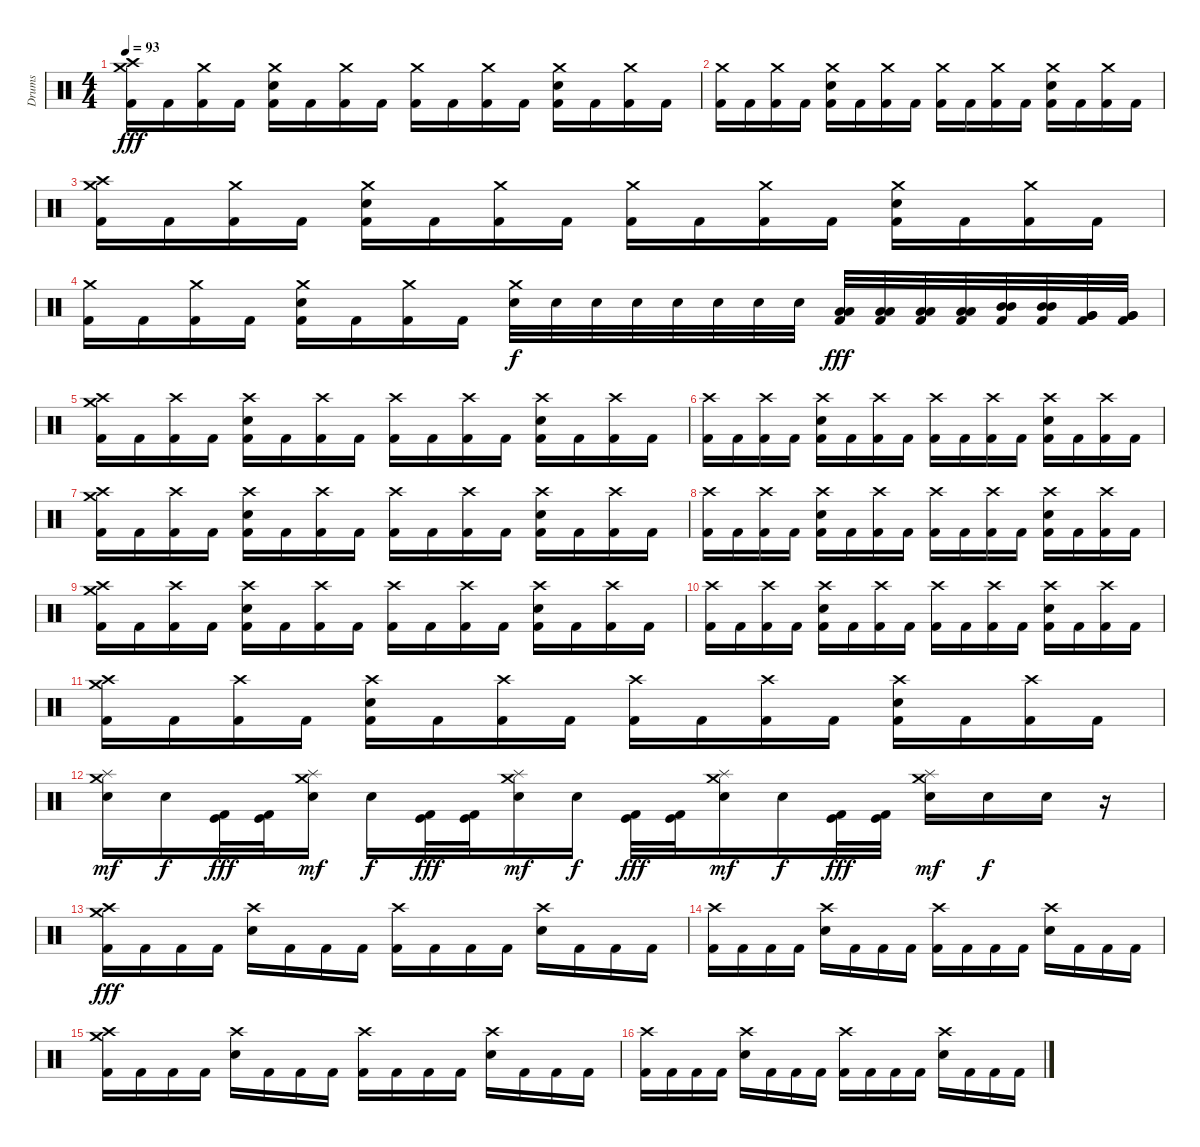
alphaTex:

\track ("Drums" "Drums") {instrument percussion}
\staff {score}
\articulation defaults
\ts (4 4)
\tempo 93
\clef neutral
\ks c
("Crash medium (hit)" "Crash high (hit)" "Kick (hit) 2").16{dy fff} "Kick (hit) 2".16 ("Crash medium (hit)" "Kick (hit) 2").16 "Kick (hit) 2".16 ("Crash medium (hit)" "Electric Snare (hit)" "Kick (hit) 2").16 "Kick (hit) 2".16 ("Crash medium (hit)" "Kick (hit) 2").16 "Kick (hit) 2".16 ("Crash medium (hit)" "Kick (hit) 2").16 "Kick (hit) 2".16 ("Crash medium (hit)" "Kick (hit) 2").16 "Kick (hit) 2".16 ("Crash medium (hit)" "Electric Snare (hit)" "Kick (hit) 2").16 "Kick (hit) 2".16 ("Crash medium (hit)" "Kick (hit) 2").16 "Kick (hit) 2".16 |
("Crash medium (hit)" "Kick (hit) 2").16 "Kick (hit) 2".16 ("Crash medium (hit)" "Kick (hit) 2").16 "Kick (hit) 2".16 ("Crash medium (hit)" "Electric Snare (hit)" "Kick (hit) 2").16 "Kick (hit) 2".16 ("Crash medium (hit)" "Kick (hit) 2").16 "Kick (hit) 2".16 ("Crash medium (hit)" "Kick (hit) 2").16 "Kick (hit) 2".16 ("Crash medium (hit)" "Kick (hit) 2").16 "Kick (hit) 2".16 ("Crash medium (hit)" "Electric Snare (hit)" "Kick (hit) 2").16 "Kick (hit) 2".16 ("Crash medium (hit)" "Kick (hit) 2").16 "Kick (hit) 2".16 |
("Crash medium (hit)" "Crash high (hit)" "Kick (hit) 2").16 "Kick (hit) 2".16 ("Crash medium (hit)" "Kick (hit) 2").16 "Kick (hit) 2".16 ("Crash medium (hit)" "Electric Snare (hit)" "Kick (hit) 2").16 "Kick (hit) 2".16 ("Crash medium (hit)" "Kick (hit) 2").16 "Kick (hit) 2".16 ("Crash medium (hit)" "Kick (hit) 2").16 "Kick (hit) 2".16 ("Crash medium (hit)" "Kick (hit) 2").16 "Kick (hit) 2".16 ("Crash medium (hit)" "Electric Snare (hit)" "Kick (hit) 2").16 "Kick (hit) 2".16 ("Crash medium (hit)" "Kick (hit) 2").16 "Kick (hit) 2".16 |
("Crash medium (hit)" "Kick (hit) 2").16 "Kick (hit) 2".16 ("Crash medium (hit)" "Kick (hit) 2").16 "Kick (hit) 2".16 ("Crash medium (hit)" "Electric Snare (hit)" "Kick (hit) 2").16 "Kick (hit) 2".16 ("Crash medium (hit)" "Kick (hit) 2").16 "Kick (hit) 2".16 ("Crash medium (hit)" "Electric Snare (hit)").32{dy f} "Electric Snare (hit)".32 "Electric Snare (hit)".32 "Electric Snare (hit)".32 "Electric Snare (hit)".32 "Electric Snare (hit)".32 "Electric Snare (hit)".32 "Electric Snare (hit)".32 ("Low Tom (hit)" "Low Tom (hit)" "Kick (hit) 2").32{dy fff} ("Low Tom (hit)" "Low Tom (hit)" "Kick (hit) 2").32 ("Low Tom (hit)" "Low Tom (hit)" "Kick (hit) 2").32 ("Low Tom (hit)" "Low Tom (hit)" "Kick (hit) 2").32 ("Mid Tom (hit)" "Mid Tom (hit)" "Kick (hit) 2").32 ("Mid Tom (hit)" "Mid Tom (hit)" "Kick (hit) 2").32 ("Very Low Tom (hit)" "Very Low Tom (hit)" "Kick (hit) 2").32 ("Very Low Tom (hit)" "Very Low Tom (hit)" "Kick (hit) 2").32 |
("Crash medium (hit)" "Crash high (hit)" "Kick (hit) 2").16 "Kick (hit) 2".16 ("Crash high (hit)" "Kick (hit) 2").16 "Kick (hit) 2".16 ("Crash high (hit)" "Electric Snare (hit)" "Kick (hit) 2").16 "Kick (hit) 2".16 ("Crash high (hit)" "Kick (hit) 2").16 "Kick (hit) 2".16 ("Crash high (hit)" "Kick (hit) 2").16 "Kick (hit) 2".16 ("Crash high (hit)" "Kick (hit) 2").16 "Kick (hit) 2".16 ("Crash high (hit)" "Electric Snare (hit)" "Kick (hit) 2").16 "Kick (hit) 2".16 ("Crash high (hit)" "Kick (hit) 2").16 "Kick (hit) 2".16 |
("Crash high (hit)" "Kick (hit) 2").16 "Kick (hit) 2".16 ("Crash high (hit)" "Kick (hit) 2").16 "Kick (hit) 2".16 ("Crash high (hit)" "Electric Snare (hit)" "Kick (hit) 2").16 "Kick (hit) 2".16 ("Crash high (hit)" "Kick (hit) 2").16 "Kick (hit) 2".16 ("Crash high (hit)" "Kick (hit) 2").16 "Kick (hit) 2".16 ("Crash high (hit)" "Kick (hit) 2").16 "Kick (hit) 2".16 ("Crash high (hit)" "Electric Snare (hit)" "Kick (hit) 2").16 "Kick (hit) 2".16 ("Crash high (hit)" "Kick (hit) 2").16 "Kick (hit) 2".16 |
("Crash medium (hit)" "Crash high (hit)" "Kick (hit) 2").16 "Kick (hit) 2".16 ("Crash high (hit)" "Kick (hit) 2").16 "Kick (hit) 2".16 ("Crash high (hit)" "Electric Snare (hit)" "Kick (hit) 2").16 "Kick (hit) 2".16 ("Crash high (hit)" "Kick (hit) 2").16 "Kick (hit) 2".16 ("Crash high (hit)" "Kick (hit) 2").16 "Kick (hit) 2".16 ("Crash high (hit)" "Kick (hit) 2").16 "Kick (hit) 2".16 ("Crash high (hit)" "Electric Snare (hit)" "Kick (hit) 2").16 "Kick (hit) 2".16 ("Crash high (hit)" "Kick (hit) 2").16 "Kick (hit) 2".16 |
("Crash high (hit)" "Kick (hit) 2").16 "Kick (hit) 2".16 ("Crash high (hit)" "Kick (hit) 2").16 "Kick (hit) 2".16 ("Crash high (hit)" "Electric Snare (hit)" "Kick (hit) 2").16 "Kick (hit) 2".16 ("Crash high (hit)" "Kick (hit) 2").16 "Kick (hit) 2".16 ("Crash high (hit)" "Kick (hit) 2").16 "Kick (hit) 2".16 ("Crash high (hit)" "Kick (hit) 2").16 "Kick (hit) 2".16 ("Crash high (hit)" "Electric Snare (hit)" "Kick (hit) 2").16 "Kick (hit) 2".16 ("Crash high (hit)" "Kick (hit) 2").16 "Kick (hit) 2".16 |
("Crash medium (hit)" "Crash high (hit)" "Kick (hit) 2").16 "Kick (hit) 2".16 ("Crash high (hit)" "Kick (hit) 2").16 "Kick (hit) 2".16 ("Crash high (hit)" "Electric Snare (hit)" "Kick (hit) 2").16 "Kick (hit) 2".16 ("Crash high (hit)" "Kick (hit) 2").16 "Kick (hit) 2".16 ("Crash high (hit)" "Kick (hit) 2").16 "Kick (hit) 2".16 ("Crash high (hit)" "Kick (hit) 2").16 "Kick (hit) 2".16 ("Crash high (hit)" "Electric Snare (hit)" "Kick (hit) 2").16 "Kick (hit) 2".16 ("Crash high (hit)" "Kick (hit) 2").16 "Kick (hit) 2".16 |
("Crash high (hit)" "Kick (hit) 2").16 "Kick (hit) 2".16 ("Crash high (hit)" "Kick (hit) 2").16 "Kick (hit) 2".16 ("Crash high (hit)" "Electric Snare (hit)" "Kick (hit) 2").16 "Kick (hit) 2".16 ("Crash high (hit)" "Kick (hit) 2").16 "Kick (hit) 2".16 ("Crash high (hit)" "Kick (hit) 2").16 "Kick (hit) 2".16 ("Crash high (hit)" "Kick (hit) 2").16 "Kick (hit) 2".16 ("Crash high (hit)" "Electric Snare (hit)" "Kick (hit) 2").16 "Kick (hit) 2".16 ("Crash high (hit)" "Kick (hit) 2").16 "Kick (hit) 2".16 |
("Crash medium (hit)" "Crash high (hit)" "Kick (hit) 2").16 "Kick (hit) 2".16 ("Crash high (hit)" "Kick (hit) 2").16 "Kick (hit) 2".16 ("Crash high (hit)" "Electric Snare (hit)" "Kick (hit) 2").16 "Kick (hit) 2".16 ("Crash high (hit)" "Kick (hit) 2").16 "Kick (hit) 2".16 ("Crash high (hit)" "Kick (hit) 2").16 "Kick (hit) 2".16 ("Crash high (hit)" "Kick (hit) 2").16 "Kick (hit) 2".16 ("Crash high (hit)" "Electric Snare (hit)" "Kick (hit) 2").16 "Kick (hit) 2".16 ("Crash high (hit)" "Kick (hit) 2").16 "Kick (hit) 2".16 |
("Crash medium (hit)" "Splash (hit)" "Electric Snare (hit)").16{dy mf} "Electric Snare (hit)".16{dy f} ("Kick (hit)" "Kick (hit) 2").32{dy fff} ("Kick (hit)" "Kick (hit) 2").32 ("Crash medium (hit)" "Splash (hit)" "Electric Snare (hit)").16{dy mf} "Electric Snare (hit)".16{dy f} ("Kick (hit)" "Kick (hit) 2").32{dy fff} ("Kick (hit)" "Kick (hit) 2").32 ("Crash medium (hit)" "Splash (hit)" "Electric Snare (hit)").16{dy mf} "Electric Snare (hit)".16{dy f} ("Kick (hit)" "Kick (hit) 2").32{dy fff} ("Kick (hit)" "Kick (hit) 2").32 ("Crash medium (hit)" "Splash (hit)" "Electric Snare (hit)").16{dy mf} "Electric Snare (hit)".16{dy f} ("Kick (hit)" "Kick (hit) 2").32{dy fff} ("Kick (hit)" "Kick (hit) 2").32 ("Crash medium (hit)" "Splash (hit)" "Electric Snare (hit)").16{dy mf} "Electric Snare (hit)".16{dy f} "Electric Snare (hit)".16 r.16 |
("Crash medium (hit)" "Crash high (hit)" "Kick (hit) 2").16{dy fff} "Kick (hit) 2".16 "Kick (hit) 2".16 "Kick (hit) 2".16 ("Crash high (hit)" "Electric Snare (hit)").16 "Kick (hit) 2".16 "Kick (hit) 2".16 "Kick (hit) 2".16 ("Crash high (hit)" "Kick (hit) 2").16 "Kick (hit) 2".16 "Kick (hit) 2".16 "Kick (hit) 2".16 ("Crash high (hit)" "Electric Snare (hit)").16 "Kick (hit) 2".16 "Kick (hit) 2".16 "Kick (hit) 2".16 |
("Crash high (hit)" "Kick (hit) 2").16 "Kick (hit) 2".16 "Kick (hit) 2".16 "Kick (hit) 2".16 ("Crash high (hit)" "Electric Snare (hit)").16 "Kick (hit) 2".16 "Kick (hit) 2".16 "Kick (hit) 2".16 ("Crash high (hit)" "Kick (hit) 2").16 "Kick (hit) 2".16 "Kick (hit) 2".16 "Kick (hit) 2".16 ("Crash high (hit)" "Electric Snare (hit)").16 "Kick (hit) 2".16 "Kick (hit) 2".16 "Kick (hit) 2".16 |
("Crash medium (hit)" "Crash high (hit)" "Kick (hit) 2").16 "Kick (hit) 2".16 "Kick (hit) 2".16 "Kick (hit) 2".16 ("Crash high (hit)" "Electric Snare (hit)").16 "Kick (hit) 2".16 "Kick (hit) 2".16 "Kick (hit) 2".16 ("Crash high (hit)" "Kick (hit) 2").16 "Kick (hit) 2".16 "Kick (hit) 2".16 "Kick (hit) 2".16 ("Crash high (hit)" "Electric Snare (hit)").16 "Kick (hit) 2".16 "Kick (hit) 2".16 "Kick (hit) 2".16 |
("Crash high (hit)" "Kick (hit) 2").16 "Kick (hit) 2".16 "Kick (hit) 2".16 "Kick (hit) 2".16 ("Crash high (hit)" "Electric Snare (hit)").16 "Kick (hit) 2".16 "Kick (hit) 2".16 "Kick (hit) 2".16 ("Crash high (hit)" "Kick (hit) 2").16 "Kick (hit) 2".16 "Kick (hit) 2".16 "Kick (hit) 2".16 ("Crash high (hit)" "Electric Snare (hit)").16 "Kick (hit) 2".16 "Kick (hit) 2".16 "Kick (hit) 2".16
